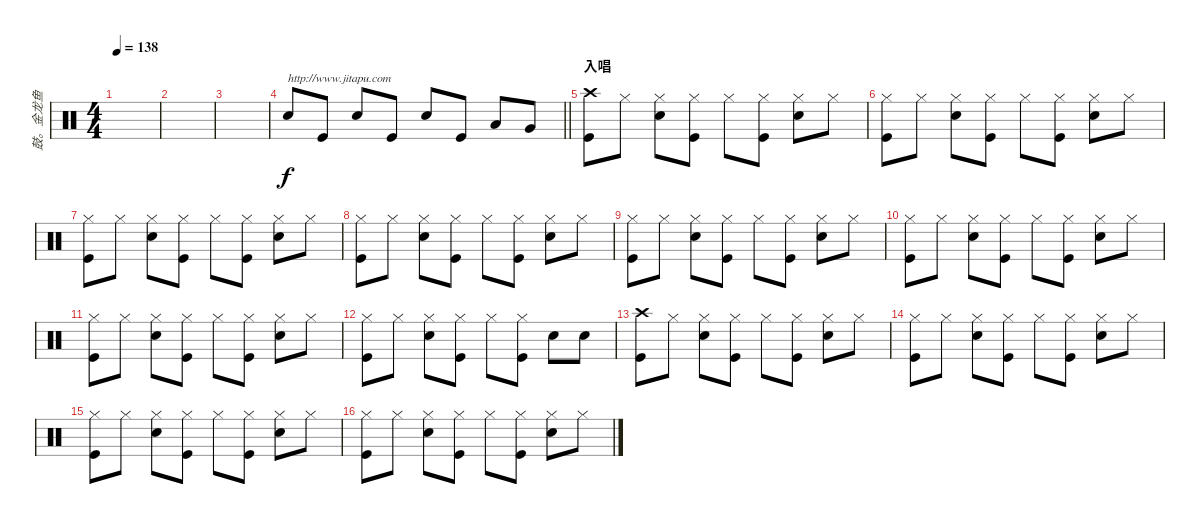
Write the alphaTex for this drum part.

\track ("鼓。金龙鱼" "鼓。金龙鱼") {instrument percussion}
\staff {score}
\articulation defaults
\ts (4 4)
\tempo 138
\clef neutral
\ks c
|
|
|
\barLineRight lightlight "Snare (hit) 2".8{txt "http://www.jitapu.com"} "Kick (hit)".8 "Snare (hit) 2".8 "Kick (hit)".8 "Snare (hit) 2".8 "Kick (hit)".8 "Low Tom (hit)".8 "Very Low Tom (hit)".8
|
\section ("" "入唱")
("Crash high (hit)" "Kick (hit)").8{dy f} "Hi-Hat (closed)".8 ("Hi-Hat (closed)" "Snare (hit) 2").8 ("Hi-Hat (closed)" "Kick (hit)").8 "Hi-Hat (closed)".8 ("Hi-Hat (closed)" "Kick (hit)").8 ("Hi-Hat (closed)" "Snare (hit) 2").8 "Hi-Hat (closed)".8 |
("Hi-Hat (closed)" "Kick (hit)").8 "Hi-Hat (closed)".8 ("Hi-Hat (closed)" "Snare (hit) 2").8 ("Hi-Hat (closed)" "Kick (hit)").8 "Hi-Hat (closed)".8 ("Hi-Hat (closed)" "Kick (hit)").8 ("Hi-Hat (closed)" "Snare (hit) 2").8 "Hi-Hat (closed)".8 |
("Hi-Hat (closed)" "Kick (hit)").8 "Hi-Hat (closed)".8 ("Hi-Hat (closed)" "Snare (hit) 2").8 ("Hi-Hat (closed)" "Kick (hit)").8 "Hi-Hat (closed)".8 ("Hi-Hat (closed)" "Kick (hit)").8 ("Hi-Hat (closed)" "Snare (hit) 2").8 "Hi-Hat (closed)".8 |
("Hi-Hat (closed)" "Kick (hit)").8 "Hi-Hat (closed)".8 ("Hi-Hat (closed)" "Snare (hit) 2").8 ("Hi-Hat (closed)" "Kick (hit)").8 "Hi-Hat (closed)".8 ("Hi-Hat (closed)" "Kick (hit)").8 ("Hi-Hat (closed)" "Snare (hit) 2").8 "Hi-Hat (closed)".8 |
("Hi-Hat (closed)" "Kick (hit)").8 "Hi-Hat (closed)".8 ("Hi-Hat (closed)" "Snare (hit) 2").8 ("Hi-Hat (closed)" "Kick (hit)").8 "Hi-Hat (closed)".8 ("Hi-Hat (closed)" "Kick (hit)").8 ("Hi-Hat (closed)" "Snare (hit) 2").8 "Hi-Hat (closed)".8 |
("Hi-Hat (closed)" "Kick (hit)").8 "Hi-Hat (closed)".8 ("Hi-Hat (closed)" "Snare (hit) 2").8 ("Hi-Hat (closed)" "Kick (hit)").8 "Hi-Hat (closed)".8 ("Hi-Hat (closed)" "Kick (hit)").8 ("Hi-Hat (closed)" "Snare (hit) 2").8 "Hi-Hat (closed)".8 |
("Hi-Hat (closed)" "Kick (hit)").8 "Hi-Hat (closed)".8 ("Hi-Hat (closed)" "Snare (hit) 2").8 ("Hi-Hat (closed)" "Kick (hit)").8 "Hi-Hat (closed)".8 ("Hi-Hat (closed)" "Kick (hit)").8 ("Hi-Hat (closed)" "Snare (hit) 2").8 "Hi-Hat (closed)".8 |
("Hi-Hat (closed)" "Kick (hit)").8 "Hi-Hat (closed)".8 ("Hi-Hat (closed)" "Snare (hit) 2").8 ("Hi-Hat (closed)" "Kick (hit)").8 "Hi-Hat (closed)".8 ("Hi-Hat (closed)" "Kick (hit)").8 "Snare (hit) 2".8 "Snare (hit) 2".8 |
("Crash high (hit)" "Kick (hit)").8 "Hi-Hat (closed)".8 ("Hi-Hat (closed)" "Snare (hit) 2").8 ("Hi-Hat (closed)" "Kick (hit)").8 "Hi-Hat (closed)".8 ("Hi-Hat (closed)" "Kick (hit)").8 ("Hi-Hat (closed)" "Snare (hit) 2").8 "Hi-Hat (closed)".8 |
("Hi-Hat (closed)" "Kick (hit)").8 "Hi-Hat (closed)".8 ("Hi-Hat (closed)" "Snare (hit) 2").8 ("Hi-Hat (closed)" "Kick (hit)").8 "Hi-Hat (closed)".8 ("Hi-Hat (closed)" "Kick (hit)").8 ("Hi-Hat (closed)" "Snare (hit) 2").8 "Hi-Hat (closed)".8 |
("Hi-Hat (closed)" "Kick (hit)").8 "Hi-Hat (closed)".8 ("Hi-Hat (closed)" "Snare (hit) 2").8 ("Hi-Hat (closed)" "Kick (hit)").8 "Hi-Hat (closed)".8 ("Hi-Hat (closed)" "Kick (hit)").8 ("Hi-Hat (closed)" "Snare (hit) 2").8 "Hi-Hat (closed)".8 |
("Hi-Hat (closed)" "Kick (hit)").8 "Hi-Hat (closed)".8 ("Hi-Hat (closed)" "Snare (hit) 2").8 ("Hi-Hat (closed)" "Kick (hit)").8 "Hi-Hat (closed)".8 ("Hi-Hat (closed)" "Kick (hit)").8 ("Hi-Hat (closed)" "Snare (hit) 2").8 "Hi-Hat (closed)".8
